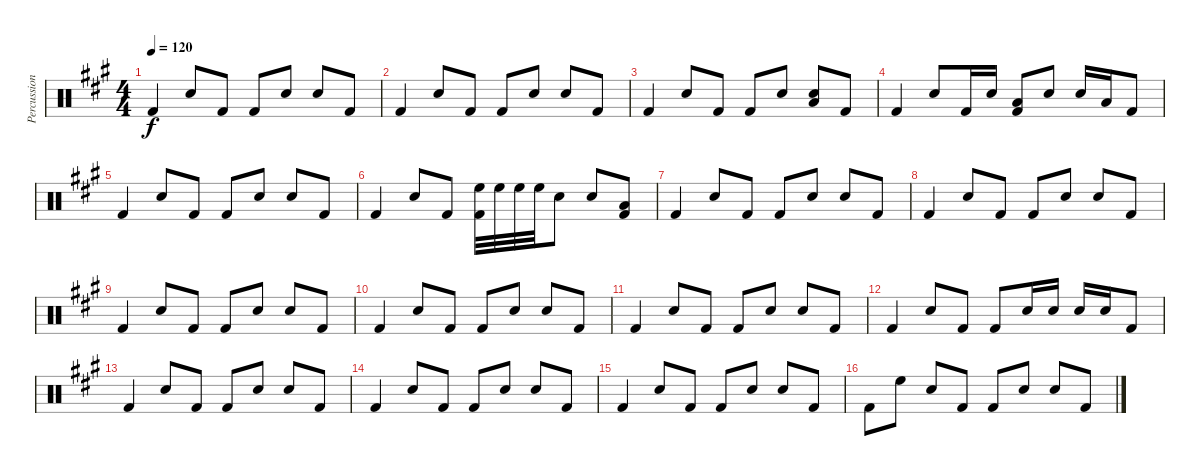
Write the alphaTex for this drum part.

\track ("Percussion" "Percussion") {instrument percussion}
\staff {score}
\articulation defaults
\ts (4 4)
\tempo 120
\clef neutral
\ks a "Kick (hit) 2".4{dy f} "Snare (hit) 2".8 "Kick (hit) 2".8 "Kick (hit) 2".8 "Snare (hit) 2".8 "Snare (hit) 2".8 "Kick (hit) 2".8
|
"Kick (hit) 2".4 "Snare (hit) 2".8 "Kick (hit) 2".8 "Kick (hit) 2".8 "Snare (hit) 2".8 "Snare (hit) 2".8 "Kick (hit) 2".8 |
"Kick (hit) 2".4 "Snare (hit) 2".8 "Kick (hit) 2".8 "Kick (hit) 2".8 "Snare (hit) 2".8 ("Snare (hit) 2" "Low Floor Tom (hit)").8 "Kick (hit) 2".8 |
"Kick (hit) 2".4 "Snare (hit) 2".8 "Kick (hit) 2".16 "Snare (hit) 2".16 ("Low Floor Tom (hit)" "Kick (hit) 2").8 "Snare (hit) 2".8 "Snare (hit) 2".16 "Low Tom (hit)".16 "Kick (hit) 2".8 |
"Kick (hit) 2".4 "Snare (hit) 2".8 "Kick (hit) 2".8 "Kick (hit) 2".8 "Snare (hit) 2".8 "Snare (hit) 2".8 "Kick (hit) 2".8 |
"Kick (hit) 2".4 "Snare (hit) 2".8 "Kick (hit) 2".8 ("High Floor Tom (hit)" "Kick (hit) 2").32 "High Floor Tom (hit)".32 "High Floor Tom (hit)".32 "High Floor Tom (hit)".32 "Snare (hit) 2".8 "Snare (hit) 2".8 ("Low Floor Tom (hit)" "Kick (hit) 2").8 |
"Kick (hit) 2".4 "Snare (hit) 2".8 "Kick (hit) 2".8 "Kick (hit) 2".8 "Snare (hit) 2".8 "Snare (hit) 2".8 "Kick (hit) 2".8 |
"Kick (hit) 2".4 "Snare (hit) 2".8 "Kick (hit) 2".8 "Kick (hit) 2".8 "Snare (hit) 2".8 "Snare (hit) 2".8 "Kick (hit) 2".8 |
"Kick (hit) 2".4 "Snare (hit) 2".8 "Kick (hit) 2".8 "Kick (hit) 2".8 "Snare (hit) 2".8 "Snare (hit) 2".8 "Kick (hit) 2".8 |
"Kick (hit) 2".4 "Snare (hit) 2".8 "Kick (hit) 2".8 "Kick (hit) 2".8 "Snare (hit) 2".8 "Snare (hit) 2".8 "Kick (hit) 2".8 |
"Kick (hit) 2".4 "Snare (hit) 2".8 "Kick (hit) 2".8 "Kick (hit) 2".8 "Snare (hit) 2".8 "Snare (hit) 2".8 "Kick (hit) 2".8 |
"Kick (hit) 2".4 "Snare (hit) 2".8 "Kick (hit) 2".8 "Kick (hit) 2".8 "Snare (hit) 2".16 "Snare (hit) 2".16 "Snare (hit) 2".16 "Snare (hit) 2".16 "Kick (hit) 2".8 |
"Kick (hit) 2".4 "Snare (hit) 2".8 "Kick (hit) 2".8 "Kick (hit) 2".8 "Snare (hit) 2".8 "Snare (hit) 2".8 "Kick (hit) 2".8 |
"Kick (hit) 2".4 "Snare (hit) 2".8 "Kick (hit) 2".8 "Kick (hit) 2".8 "Snare (hit) 2".8 "Snare (hit) 2".8 "Kick (hit) 2".8 |
"Kick (hit) 2".4 "Snare (hit) 2".8 "Kick (hit) 2".8 "Kick (hit) 2".8 "Snare (hit) 2".8 "Snare (hit) 2".8 "Kick (hit) 2".8 |
"Kick (hit) 2".8 "High Floor Tom (hit)".8 "Snare (hit) 2".8 "Kick (hit) 2".8 "Kick (hit) 2".8 "Snare (hit) 2".8 "Snare (hit) 2".8 "Kick (hit) 2".8
